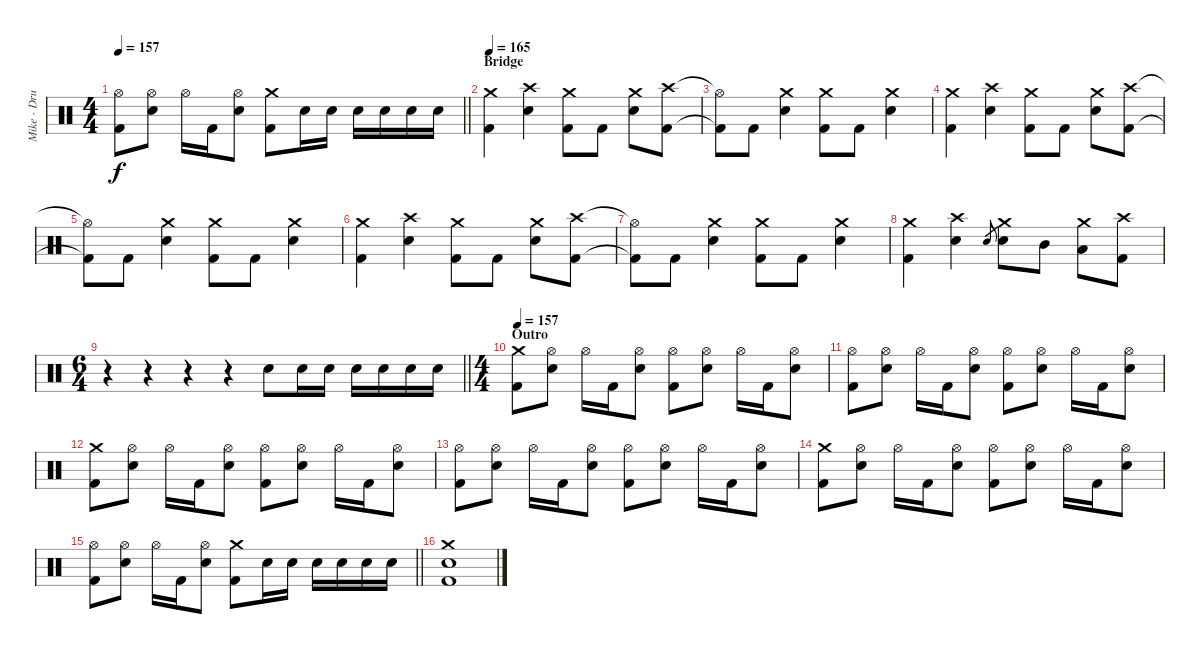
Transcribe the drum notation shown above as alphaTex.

\track ("Mike - Drums" "Mike - Dru") {instrument percussion}
\staff {score}
\articulation defaults
\ts (4 4)
\tempo 157
\clef neutral
\barLineRight lightlight
\ks c
("Hi-Hat (open)" "Kick (hit) 2").8{dy f} ("Hi-Hat (open)" "Electric Snare (hit)").8 "Hi-Hat (open)".16 "Kick (hit) 2".16 ("Hi-Hat (open)" "Electric Snare (hit)").8 ("Crash medium (hit)" "Kick (hit) 2").8 "Electric Snare (hit)".16 "Electric Snare (hit)".16 "Electric Snare (hit)".16 "Electric Snare (hit)".16 "Electric Snare (hit)".16 "Electric Snare (hit)".16 |
\section ("" "Bridge")
\tempo 165
("Crash medium (hit)" "Kick (hit) 2").4 ("Crash high (hit)" "Electric Snare (hit)").4 ("Crash medium (hit)" "Kick (hit) 2").8 "Kick (hit) 2".8 ("Crash medium (hit)" "Electric Snare (hit)").8 ("Crash high (hit)" "Kick (hit) 2").8 |
("Hi-Hat (open)"{t} "Kick (hit) 2"{t}).8 "Kick (hit) 2".8 ("Crash medium (hit)" "Electric Snare (hit)").4 ("Crash medium (hit)" "Kick (hit) 2").8 "Kick (hit) 2".8 ("Crash medium (hit)" "Electric Snare (hit)").4 |
("Crash medium (hit)" "Kick (hit) 2").4 ("Crash high (hit)" "Electric Snare (hit)").4 ("Crash medium (hit)" "Kick (hit) 2").8 "Kick (hit) 2".8 ("Crash medium (hit)" "Electric Snare (hit)").8 ("Crash high (hit)" "Kick (hit) 2").8 |
("Hi-Hat (open)"{t} "Kick (hit) 2"{t}).8 "Kick (hit) 2".8 ("Crash medium (hit)" "Electric Snare (hit)").4 ("Crash medium (hit)" "Kick (hit) 2").8 "Kick (hit) 2".8 ("Crash medium (hit)" "Electric Snare (hit)").4 |
("Crash medium (hit)" "Kick (hit) 2").4 ("Crash high (hit)" "Electric Snare (hit)").4 ("Crash medium (hit)" "Kick (hit) 2").8 "Kick (hit) 2".8 ("Crash medium (hit)" "Electric Snare (hit)").8 ("Crash high (hit)" "Kick (hit) 2").8 |
("Hi-Hat (open)"{t} "Kick (hit) 2"{t}).8 "Kick (hit) 2".8 ("Crash medium (hit)" "Electric Snare (hit)").4 ("Crash medium (hit)" "Kick (hit) 2").8 "Kick (hit) 2".8 ("Crash medium (hit)" "Electric Snare (hit)").4 |
("Crash medium (hit)" "Kick (hit) 2").4 ("Crash high (hit)" "Electric Snare (hit)").4 "Electric Snare (hit)".8{gr} ("Crash medium (hit)" "Electric Snare (hit)").8 "Mid Tom (hit)".8 ("Crash medium (hit)" "Low Tom (hit)").8 ("Crash high (hit)" "Kick (hit) 2").8 |
\ts (6 4)
\barLineRight lightlight
r.4 r.4 r.4 r.4 "Electric Snare (hit)".8 "Electric Snare (hit)".16 "Electric Snare (hit)".16 "Electric Snare (hit)".16 "Electric Snare (hit)".16 "Electric Snare (hit)".16 "Electric Snare (hit)".16 |
\ts (4 4)
\section ("" "Outro")
\tempo 157
("Crash medium (hit)" "Kick (hit) 2").8 ("Hi-Hat (open)" "Electric Snare (hit)").8 "Hi-Hat (open)".16 "Kick (hit) 2".16 ("Hi-Hat (open)" "Electric Snare (hit)").8 ("Hi-Hat (open)" "Kick (hit) 2").8 ("Hi-Hat (open)" "Electric Snare (hit)").8 "Hi-Hat (open)".16 "Kick (hit) 2".16 ("Hi-Hat (open)" "Electric Snare (hit)").8 |
("Hi-Hat (open)" "Kick (hit) 2").8 ("Hi-Hat (open)" "Electric Snare (hit)").8 "Hi-Hat (open)".16 "Kick (hit) 2".16 ("Hi-Hat (open)" "Electric Snare (hit)").8 ("Hi-Hat (open)" "Kick (hit) 2").8 ("Hi-Hat (open)" "Electric Snare (hit)").8 "Hi-Hat (open)".16 "Kick (hit) 2".16 ("Hi-Hat (open)" "Electric Snare (hit)").8 |
("Crash medium (hit)" "Kick (hit) 2").8 ("Hi-Hat (open)" "Electric Snare (hit)").8 "Hi-Hat (open)".16 "Kick (hit) 2".16 ("Hi-Hat (open)" "Electric Snare (hit)").8 ("Hi-Hat (open)" "Kick (hit) 2").8 ("Hi-Hat (open)" "Electric Snare (hit)").8 "Hi-Hat (open)".16 "Kick (hit) 2".16 ("Hi-Hat (open)" "Electric Snare (hit)").8 |
("Hi-Hat (open)" "Kick (hit) 2").8 ("Hi-Hat (open)" "Electric Snare (hit)").8 "Hi-Hat (open)".16 "Kick (hit) 2".16 ("Hi-Hat (open)" "Electric Snare (hit)").8 ("Hi-Hat (open)" "Kick (hit) 2").8 ("Hi-Hat (open)" "Electric Snare (hit)").8 "Hi-Hat (open)".16 "Kick (hit) 2".16 ("Hi-Hat (open)" "Electric Snare (hit)").8 |
("Crash medium (hit)" "Kick (hit) 2").8 ("Hi-Hat (open)" "Electric Snare (hit)").8 "Hi-Hat (open)".16 "Kick (hit) 2".16 ("Hi-Hat (open)" "Electric Snare (hit)").8 ("Hi-Hat (open)" "Kick (hit) 2").8 ("Hi-Hat (open)" "Electric Snare (hit)").8 "Hi-Hat (open)".16 "Kick (hit) 2".16 ("Hi-Hat (open)" "Electric Snare (hit)").8 |
\barLineRight lightlight
("Hi-Hat (open)" "Kick (hit) 2").8 ("Hi-Hat (open)" "Electric Snare (hit)").8 "Hi-Hat (open)".16 "Kick (hit) 2".16 ("Hi-Hat (open)" "Electric Snare (hit)").8 ("Crash medium (hit)" "Kick (hit) 2").8 "Electric Snare (hit)".16 "Electric Snare (hit)".16 "Electric Snare (hit)".16 "Electric Snare (hit)".16 "Electric Snare (hit)".16 "Electric Snare (hit)".16 |
("Crash medium (hit)" "Electric Snare (hit)" "Kick (hit) 2").1
